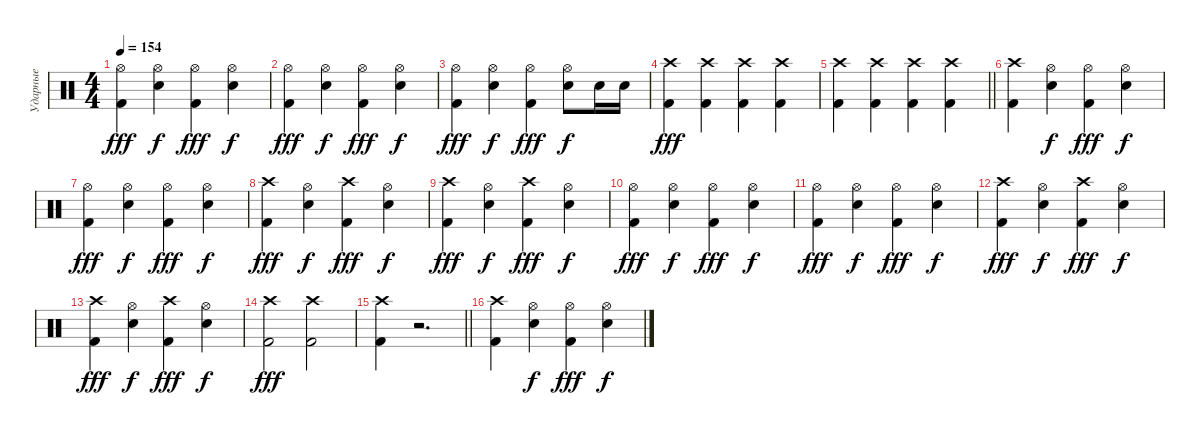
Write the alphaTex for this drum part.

\track ("Ударные" "Ударные") {instrument percussion}
\staff
\articulation defaults
\ts (4 4)
\tempo 154
\clef neutral
\ks c
("Kick (hit) 2" "Hi-Hat (open)").4{dy fff} ("Snare (hit) 2" "Hi-Hat (open)").4{dy f} ("Kick (hit) 2" "Hi-Hat (open)").4{dy fff} ("Snare (hit) 2" "Hi-Hat (open)").4{dy f} |
("Kick (hit) 2" "Hi-Hat (open)").4{dy fff} ("Snare (hit) 2" "Hi-Hat (open)").4{dy f} ("Kick (hit) 2" "Hi-Hat (open)").4{dy fff} ("Snare (hit) 2" "Hi-Hat (open)").4{dy f} |
("Kick (hit) 2" "Hi-Hat (open)").4{dy fff} ("Snare (hit) 2" "Hi-Hat (open)").4{dy f} ("Kick (hit) 2" "Hi-Hat (open)").4{dy fff} ("Snare (hit) 2" "Hi-Hat (open)").8{dy f} "Snare (hit) 2".16 "Snare (hit) 2".16 |
("Kick (hit) 2" "Crash high (hit)").4{dy fff} ("Kick (hit) 2" "Crash high (hit)").4 ("Kick (hit) 2" "Crash high (hit)").4 ("Kick (hit) 2" "Crash high (hit)").4 |
\barLineRight lightlight
("Kick (hit) 2" "Crash high (hit)").4 ("Kick (hit) 2" "Crash high (hit)").4 ("Kick (hit) 2" "Crash high (hit)").4 ("Kick (hit) 2" "Crash high (hit)").4 |
("Kick (hit) 2" "Crash high (hit)").4 ("Snare (hit) 2" "Hi-Hat (open)").4{dy f} ("Kick (hit) 2" "Hi-Hat (open)").4{dy fff} ("Snare (hit) 2" "Hi-Hat (open)").4{dy f} |
("Kick (hit) 2" "Hi-Hat (open)").4{dy fff} ("Snare (hit) 2" "Hi-Hat (open)").4{dy f} ("Kick (hit) 2" "Hi-Hat (open)").4{dy fff} ("Snare (hit) 2" "Hi-Hat (open)").4{dy f} |
("Kick (hit) 2" "Crash high (hit)").4{dy fff} ("Snare (hit) 2" "Hi-Hat (open)").4{dy f} ("Kick (hit) 2" "Crash high (hit)").4{dy fff} ("Snare (hit) 2" "Hi-Hat (open)").4{dy f} |
("Kick (hit) 2" "Crash high (hit)").4{dy fff} ("Snare (hit) 2" "Hi-Hat (open)").4{dy f} ("Kick (hit) 2" "Crash high (hit)").4{dy fff} ("Snare (hit) 2" "Hi-Hat (open)").4{dy f} |
("Kick (hit) 2" "Hi-Hat (open)").4{dy fff} ("Snare (hit) 2" "Hi-Hat (open)").4{dy f} ("Kick (hit) 2" "Hi-Hat (open)").4{dy fff} ("Snare (hit) 2" "Hi-Hat (open)").4{dy f} |
("Kick (hit) 2" "Hi-Hat (open)").4{dy fff} ("Snare (hit) 2" "Hi-Hat (open)").4{dy f} ("Kick (hit) 2" "Hi-Hat (open)").4{dy fff} ("Snare (hit) 2" "Hi-Hat (open)").4{dy f} |
("Kick (hit) 2" "Crash high (hit)").4{dy fff} ("Snare (hit) 2" "Hi-Hat (open)").4{dy f} ("Kick (hit) 2" "Crash high (hit)").4{dy fff} ("Snare (hit) 2" "Hi-Hat (open)").4{dy f} |
("Kick (hit) 2" "Crash high (hit)").4{dy fff} ("Snare (hit) 2" "Hi-Hat (open)").4{dy f} ("Kick (hit) 2" "Crash high (hit)").4{dy fff} ("Snare (hit) 2" "Hi-Hat (open)").4{dy f} |
("Kick (hit) 2" "Crash high (hit)").2{dy fff} ("Kick (hit) 2" "Crash high (hit)").2 |
\barLineRight lightlight
("Kick (hit) 2" "Crash high (hit)").4 r.2{d} |
("Kick (hit) 2" "Crash high (hit)").4 ("Snare (hit) 2" "Hi-Hat (open)").4{dy f} ("Kick (hit) 2" "Hi-Hat (open)").4{dy fff} ("Snare (hit) 2" "Hi-Hat (open)").4{dy f}
